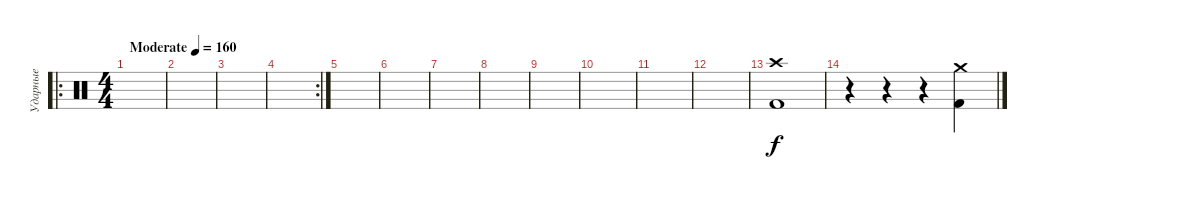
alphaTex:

\track ("Ударные" "Ударные") {instrument percussion}
\staff {score}
\articulation defaults
\ro
\ts (4 4)
\tempo (160 "Moderate")
\clef neutral
\ks c
|
|
|
\rc 2
|
|
|
|
|
|
|
|
|
("Crash high (hit)" "Kick (hit) 2").1 |
r.4 r.4 r.4 ("Kick (hit) 2" "Crash medium (hit)").4
